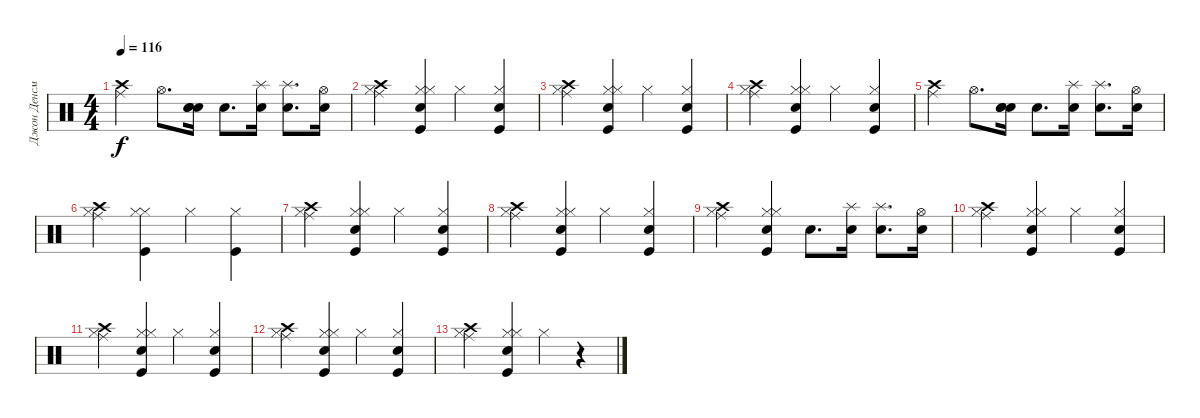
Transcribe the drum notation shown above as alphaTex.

\track ("Джон Денсмор" "Джон Денсм") {instrument percussion}
\staff {score}
\articulation defaults
\ts (4 4)
\tempo 116
\clef neutral
\ks c
("Ride (middle)" "Crash high (hit)").4{dy f} "Hi-Hat (open)".8{d} ("Snare (hit) 2" "Snare (hit) 2" "Snare (hit) 2").16 "Snare (hit) 2".8{d} ("Splash (hit)" "Snare (hit) 2").16 ("Splash (hit)" "Snare (hit) 2").8{d} ("Hi-Hat (open)" "Snare (hit) 2").16 |
("Hi-Hat (closed)" "Ride (middle)" "Crash high (hit)").4 ("Hi-Hat (closed)" "Hi-Hat (closed)" "Kick (hit)" "Snare (hit) 2").4 "Hi-Hat (closed)".4 ("Hi-Hat (closed)" "Snare (hit) 2" "Kick (hit)").4 |
("Hi-Hat (closed)" "Ride (middle)" "Crash high (hit)").4 ("Hi-Hat (closed)" "Hi-Hat (closed)" "Kick (hit)" "Snare (hit) 2").4 "Hi-Hat (closed)".4 ("Hi-Hat (closed)" "Snare (hit) 2" "Kick (hit)").4 |
("Hi-Hat (closed)" "Ride (middle)" "Crash high (hit)").4 ("Hi-Hat (closed)" "Hi-Hat (closed)" "Kick (hit)" "Snare (hit) 2").4 "Hi-Hat (closed)".4 ("Hi-Hat (closed)" "Snare (hit) 2" "Kick (hit)").4 |
("Ride (middle)" "Crash high (hit)").4 "Hi-Hat (open)".8{d} ("Snare (hit) 2" "Snare (hit) 2" "Snare (hit) 2").16 "Snare (hit) 2".8{d} ("Splash (hit)" "Snare (hit) 2").16 ("Splash (hit)" "Snare (hit) 2").8{d} ("Hi-Hat (open)" "Snare (hit) 2").16 |
("Hi-Hat (closed)" "Ride (middle)" "Crash high (hit)").4 ("Hi-Hat (closed)" "Hi-Hat (closed)" "Kick (hit)").4 "Hi-Hat (closed)".4 ("Hi-Hat (closed)" "Kick (hit)").4 |
("Hi-Hat (closed)" "Ride (middle)" "Crash high (hit)").4 ("Hi-Hat (closed)" "Hi-Hat (closed)" "Kick (hit)" "Snare (hit) 2").4 "Hi-Hat (closed)".4 ("Hi-Hat (closed)" "Snare (hit) 2" "Kick (hit)").4 |
("Hi-Hat (closed)" "Ride (middle)" "Crash high (hit)").4 ("Hi-Hat (closed)" "Hi-Hat (closed)" "Kick (hit)" "Snare (hit) 2").4 "Hi-Hat (closed)".4 ("Hi-Hat (closed)" "Snare (hit) 2" "Kick (hit)").4 |
("Hi-Hat (closed)" "Ride (middle)" "Crash high (hit)").4 ("Hi-Hat (closed)" "Hi-Hat (closed)" "Kick (hit)" "Snare (hit) 2").4 "Snare (hit) 2".8{d} ("Splash (hit)" "Snare (hit) 2").16 ("Splash (hit)" "Snare (hit) 2").8{d} ("Hi-Hat (open)" "Snare (hit) 2").16 |
("Hi-Hat (closed)" "Ride (middle)" "Crash high (hit)").4 ("Hi-Hat (closed)" "Hi-Hat (closed)" "Kick (hit)" "Snare (hit) 2").4 "Hi-Hat (closed)".4 ("Hi-Hat (closed)" "Snare (hit) 2" "Kick (hit)").4 |
("Hi-Hat (closed)" "Ride (middle)" "Crash high (hit)").4 ("Hi-Hat (closed)" "Hi-Hat (closed)" "Kick (hit)" "Snare (hit) 2").4 "Hi-Hat (closed)".4 ("Hi-Hat (closed)" "Snare (hit) 2" "Kick (hit)").4 |
("Hi-Hat (closed)" "Ride (middle)" "Crash high (hit)").4 ("Hi-Hat (closed)" "Hi-Hat (closed)" "Kick (hit)" "Snare (hit) 2").4 "Hi-Hat (closed)".4 ("Hi-Hat (closed)" "Snare (hit) 2" "Kick (hit)").4 |
("Hi-Hat (closed)" "Ride (middle)" "Crash high (hit)").4 ("Hi-Hat (closed)" "Hi-Hat (closed)" "Kick (hit)" "Snare (hit) 2").4 "Hi-Hat (closed)".4 r.4
